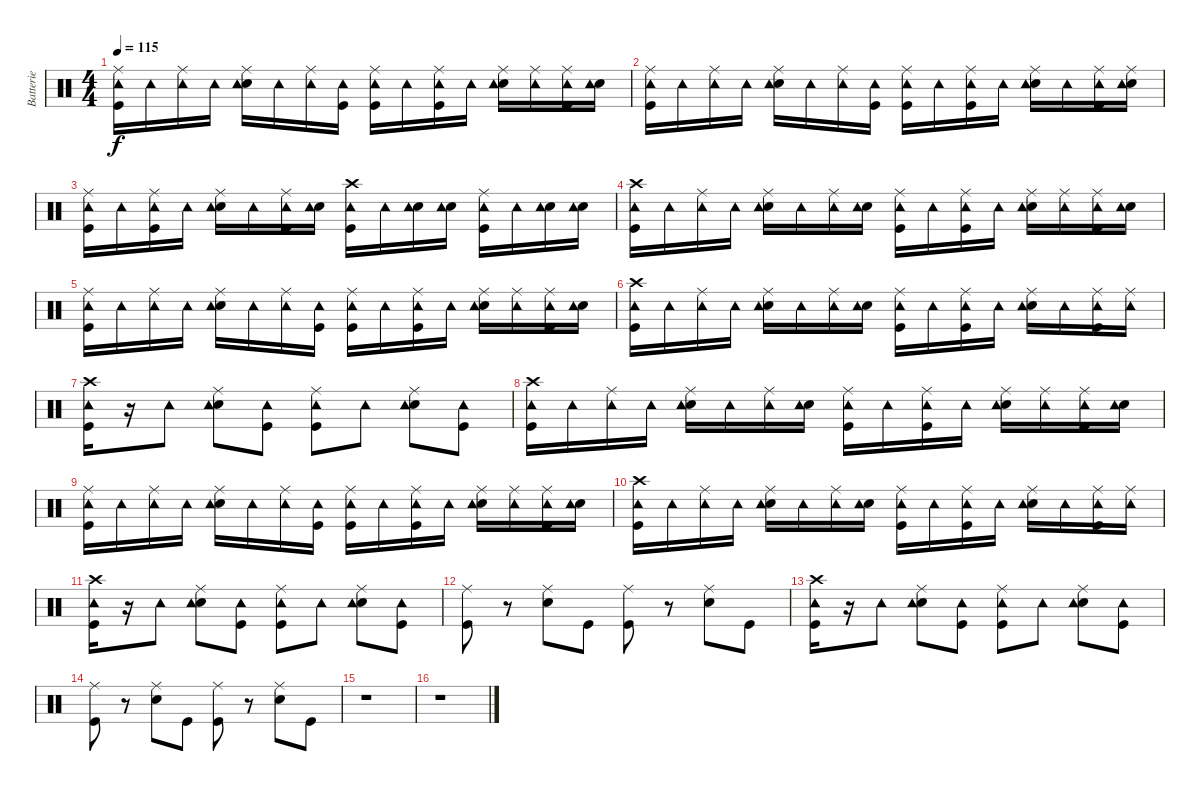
\track ("Batterie" "Batterie") {instrument percussion}
\staff {score}
\articulation defaults
\ts (4 4)
\tempo 115
\clef neutral
\ks c
("Ride (middle)" "Kick (hit)" "Tambourine (hit)").16{dy f} "Tambourine (hit)".16 ("Ride (middle)" "Tambourine (hit)").16 "Tambourine (hit)".16 ("Electric Snare (hit)" "Ride (middle)" "Tambourine (hit)").16 "Tambourine (hit)".16 ("Ride (middle)" "Tambourine (hit)").16 ("Kick (hit)" "Tambourine (hit)").16 ("Kick (hit)" "Ride (middle)" "Tambourine (hit)").16 "Tambourine (hit)".16 ("Kick (hit)" "Ride (middle)" "Tambourine (hit)").16 "Tambourine (hit)".16 ("Ride (middle)" "Electric Snare (hit)" "Tambourine (hit)").16 ("Ride (middle)" "Tambourine (hit)").16 ("Ride (middle)" "Kick (hit)" "Tambourine (hit)").16 ("Electric Snare (hit)" "Tambourine (hit)").16 |
("Kick (hit)" "Ride (middle)" "Tambourine (hit)").16 "Tambourine (hit)".16 ("Ride (middle)" "Tambourine (hit)").16 "Tambourine (hit)".16 ("Ride (middle)" "Electric Snare (hit)" "Tambourine (hit)").16 "Tambourine (hit)".16 ("Ride (middle)" "Tambourine (hit)").16 ("Kick (hit)" "Tambourine (hit)").16 ("Ride (middle)" "Kick (hit)" "Tambourine (hit)").16 "Tambourine (hit)".16 ("Kick (hit)" "Ride (middle)" "Tambourine (hit)").16 "Tambourine (hit)".16 ("Ride (middle)" "Electric Snare (hit)" "Tambourine (hit)").16 "Tambourine (hit)".16 ("Kick (hit)" "Ride (middle)" "Tambourine (hit)").16 ("Electric Snare (hit)" "Ride (middle)" "Tambourine (hit)").16 |
("Ride (middle)" "Kick (hit)" "Tambourine (hit)").16 "Tambourine (hit)".16 ("Ride (middle)" "Kick (hit)" "Tambourine (hit)").16 "Tambourine (hit)".16 ("Electric Snare (hit)" "Ride (middle)" "Tambourine (hit)").16 "Tambourine (hit)".16 ("Ride (middle)" "Kick (hit)" "Tambourine (hit)").16 ("Electric Snare (hit)" "Tambourine (hit)").16 ("Crash high (hit)" "Kick (hit)" "Tambourine (hit)").16 "Tambourine (hit)".16 ("Electric Snare (hit)" "Tambourine (hit)").16 ("Electric Snare (hit)" "Tambourine (hit)").16 ("Ride (middle)" "Kick (hit)" "Tambourine (hit)").16 "Tambourine (hit)".16 ("Electric Snare (hit)" "Tambourine (hit)").16 ("Electric Snare (hit)" "Tambourine (hit)").16 |
("Kick (hit)" "Crash high (hit)" "Tambourine (hit)").16 "Tambourine (hit)".16 ("Ride (middle)" "Tambourine (hit)").16 "Tambourine (hit)".16 ("Electric Snare (hit)" "Ride (middle)" "Tambourine (hit)").16 "Tambourine (hit)".16 ("Ride (middle)" "Tambourine (hit)").16 ("Electric Snare (hit)" "Tambourine (hit)").16 ("Ride (middle)" "Kick (hit)" "Tambourine (hit)").16 "Tambourine (hit)".16 ("Ride (middle)" "Kick (hit)" "Tambourine (hit)").16 "Tambourine (hit)".16 ("Electric Snare (hit)" "Ride (middle)" "Tambourine (hit)").16 ("Ride (middle)" "Tambourine (hit)").16 ("Kick (hit)" "Ride (middle)" "Tambourine (hit)").16 ("Electric Snare (hit)" "Tambourine (hit)").16 |
("Kick (hit)" "Ride (middle)" "Tambourine (hit)").16 "Tambourine (hit)".16 ("Ride (middle)" "Tambourine (hit)").16 "Tambourine (hit)".16 ("Ride (middle)" "Electric Snare (hit)" "Tambourine (hit)").16 "Tambourine (hit)".16 ("Ride (middle)" "Tambourine (hit)").16 ("Kick (hit)" "Tambourine (hit)").16 ("Ride (middle)" "Kick (hit)" "Tambourine (hit)").16 "Tambourine (hit)".16 ("Kick (hit)" "Ride (middle)" "Tambourine (hit)").16 "Tambourine (hit)".16 ("Ride (middle)" "Electric Snare (hit)" "Tambourine (hit)").16 ("Ride (middle)" "Tambourine (hit)").16 ("Ride (middle)" "Kick (hit)" "Tambourine (hit)").16 ("Electric Snare (hit)" "Tambourine (hit)").16 |
("Kick (hit)" "Crash high (hit)" "Tambourine (hit)").16 "Tambourine (hit)".16 ("Ride (middle)" "Tambourine (hit)").16 "Tambourine (hit)".16 ("Ride (middle)" "Electric Snare (hit)" "Tambourine (hit)").16 "Tambourine (hit)".16 ("Ride (middle)" "Tambourine (hit)").16 ("Electric Snare (hit)" "Tambourine (hit)").16 ("Kick (hit)" "Ride (middle)" "Tambourine (hit)").16 "Tambourine (hit)".16 ("Kick (hit)" "Ride (middle)" "Tambourine (hit)").16 "Tambourine (hit)".16 ("Electric Snare (hit)" "Ride (middle)" "Tambourine (hit)").16 "Tambourine (hit)".16 ("Kick (hit)" "Ride (middle)" "Tambourine (hit)").16 ("Ride (middle)" "Tambourine (hit)").16 |
("Crash high (hit)" "Kick (hit)" "Tambourine (hit)").16 r.16 "Tambourine (hit)".8 ("Electric Snare (hit)" "Ride (middle)" "Tambourine (hit)").8 ("Kick (hit)" "Tambourine (hit)").8 ("Kick (hit)" "Ride (middle)" "Tambourine (hit)").8 "Tambourine (hit)".8 ("Ride (middle)" "Electric Snare (hit)" "Tambourine (hit)").8 ("Kick (hit)" "Tambourine (hit)").8 |
("Kick (hit)" "Crash high (hit)" "Tambourine (hit)").16 "Tambourine (hit)".16 ("Ride (middle)" "Tambourine (hit)").16 "Tambourine (hit)".16 ("Electric Snare (hit)" "Ride (middle)" "Tambourine (hit)").16 "Tambourine (hit)".16 ("Ride (middle)" "Tambourine (hit)").16 ("Electric Snare (hit)" "Tambourine (hit)").16 ("Ride (middle)" "Kick (hit)" "Tambourine (hit)").16 "Tambourine (hit)".16 ("Ride (middle)" "Kick (hit)" "Tambourine (hit)").16 "Tambourine (hit)".16 ("Electric Snare (hit)" "Ride (middle)" "Tambourine (hit)").16 ("Ride (middle)" "Tambourine (hit)").16 ("Kick (hit)" "Ride (middle)" "Tambourine (hit)").16 ("Electric Snare (hit)" "Tambourine (hit)").16 |
("Kick (hit)" "Ride (middle)" "Tambourine (hit)").16 "Tambourine (hit)".16 ("Ride (middle)" "Tambourine (hit)").16 "Tambourine (hit)".16 ("Ride (middle)" "Electric Snare (hit)" "Tambourine (hit)").16 "Tambourine (hit)".16 ("Ride (middle)" "Tambourine (hit)").16 ("Kick (hit)" "Tambourine (hit)").16 ("Ride (middle)" "Kick (hit)" "Tambourine (hit)").16 "Tambourine (hit)".16 ("Kick (hit)" "Ride (middle)" "Tambourine (hit)").16 "Tambourine (hit)".16 ("Ride (middle)" "Electric Snare (hit)" "Tambourine (hit)").16 ("Ride (middle)" "Tambourine (hit)").16 ("Ride (middle)" "Kick (hit)" "Tambourine (hit)").16 ("Electric Snare (hit)" "Tambourine (hit)").16 |
("Kick (hit)" "Crash high (hit)" "Tambourine (hit)").16 "Tambourine (hit)".16 ("Ride (middle)" "Tambourine (hit)").16 "Tambourine (hit)".16 ("Ride (middle)" "Electric Snare (hit)" "Tambourine (hit)").16 "Tambourine (hit)".16 ("Ride (middle)" "Tambourine (hit)").16 ("Electric Snare (hit)" "Tambourine (hit)").16 ("Kick (hit)" "Ride (middle)" "Tambourine (hit)").16 "Tambourine (hit)".16 ("Kick (hit)" "Ride (middle)" "Tambourine (hit)").16 "Tambourine (hit)".16 ("Electric Snare (hit)" "Ride (middle)" "Tambourine (hit)").16 "Tambourine (hit)".16 ("Kick (hit)" "Ride (middle)" "Tambourine (hit)").16 ("Ride (middle)" "Tambourine (hit)").16 |
("Crash high (hit)" "Kick (hit)" "Tambourine (hit)").16 r.16 "Tambourine (hit)".8 ("Electric Snare (hit)" "Ride (middle)" "Tambourine (hit)").8 ("Kick (hit)" "Tambourine (hit)").8 ("Kick (hit)" "Ride (middle)" "Tambourine (hit)").8 "Tambourine (hit)".8 ("Ride (middle)" "Electric Snare (hit)" "Tambourine (hit)").8 ("Kick (hit)" "Tambourine (hit)").8 |
("Kick (hit)" "Ride (middle)").8 r.8 ("Electric Snare (hit)" "Ride (middle)").8 "Kick (hit)".8 ("Kick (hit)" "Ride (middle)").8 r.8 ("Ride (middle)" "Electric Snare (hit)").8 "Kick (hit)".8 |
("Crash high (hit)" "Kick (hit)" "Tambourine (hit)").16 r.16 "Tambourine (hit)".8 ("Electric Snare (hit)" "Ride (middle)" "Tambourine (hit)").8 ("Kick (hit)" "Tambourine (hit)").8 ("Kick (hit)" "Ride (middle)" "Tambourine (hit)").8 "Tambourine (hit)".8 ("Ride (middle)" "Electric Snare (hit)" "Tambourine (hit)").8 ("Kick (hit)" "Tambourine (hit)").8 |
("Kick (hit)" "Ride (middle)").8 r.8 ("Electric Snare (hit)" "Ride (middle)").8 "Kick (hit)".8 ("Kick (hit)" "Ride (middle)").8 r.8 ("Ride (middle)" "Electric Snare (hit)").8 "Kick (hit)".8 |
r.1 |
r.1
